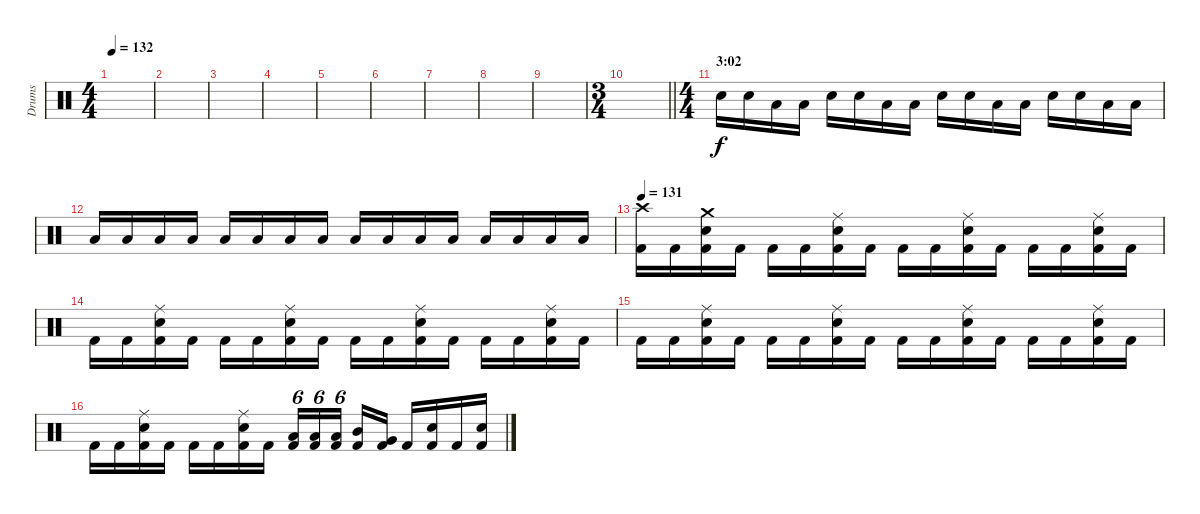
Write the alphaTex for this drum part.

\track ("Drums" "Drums") {instrument percussion}
\staff {score}
\articulation defaults
\ts (4 4)
\tempo 132
\clef neutral
\ks c
|
|
|
|
|
|
|
|
|
\ts (3 4)
\barLineRight lightlight
|
\ts (4 4)
\section ("" "3:02")
"Snare (hit) 2".16{dy f} "Snare (hit) 2".16 "Low Tom (hit)".16 "Low Tom (hit)".16 "Snare (hit) 2".16 "Snare (hit) 2".16 "Low Tom (hit)".16 "Low Tom (hit)".16 "Snare (hit) 2".16 "Snare (hit) 2".16 "Low Tom (hit)".16 "Low Tom (hit)".16 "Snare (hit) 2".16 "Snare (hit) 2".16 "Low Tom (hit)".16 "Low Tom (hit)".16 |
"Low Tom (hit)".16 "Low Tom (hit)".16 "Low Floor Tom (hit)".16 "Low Floor Tom (hit)".16 "Low Tom (hit)".16 "Low Tom (hit)".16 "Low Floor Tom (hit)".16 "Low Floor Tom (hit)".16 "Low Tom (hit)".16 "Low Tom (hit)".16 "Low Floor Tom (hit)".16 "Low Floor Tom (hit)".16 "Low Tom (hit)".16 "Low Tom (hit)".16 "Low Floor Tom (hit)".16 "Low Floor Tom (hit)".16 |
\tempo 131
("Crash high (hit)" "Kick (hit) 2").16 "Kick (hit) 2".16 ("Crash medium (hit)" "Snare (hit) 2" "Kick (hit) 2").16 "Kick (hit) 2".16 "Kick (hit) 2".16 "Kick (hit) 2".16 ("Ride (middle)" "Snare (hit) 2" "Kick (hit) 2").16 "Kick (hit) 2".16 "Kick (hit) 2".16 "Kick (hit) 2".16 ("Ride (middle)" "Snare (hit) 2" "Kick (hit) 2").16 "Kick (hit) 2".16 "Kick (hit) 2".16 "Kick (hit) 2".16 ("Ride (middle)" "Snare (hit) 2" "Kick (hit) 2").16 "Kick (hit) 2".16 |
"Kick (hit) 2".16 "Kick (hit) 2".16 ("Ride (middle)" "Snare (hit) 2" "Kick (hit) 2").16 "Kick (hit) 2".16 "Kick (hit) 2".16 "Kick (hit) 2".16 ("Ride (middle)" "Snare (hit) 2" "Kick (hit) 2").16 "Kick (hit) 2".16 "Kick (hit) 2".16 "Kick (hit) 2".16 ("Ride (middle)" "Snare (hit) 2" "Kick (hit) 2").16 "Kick (hit) 2".16 "Kick (hit) 2".16 "Kick (hit) 2".16 ("Ride (middle)" "Snare (hit) 2" "Kick (hit) 2").16 "Kick (hit) 2".16 |
"Kick (hit) 2".16 "Kick (hit) 2".16 ("Ride (middle)" "Snare (hit) 2" "Kick (hit) 2").16 "Kick (hit) 2".16 "Kick (hit) 2".16 "Kick (hit) 2".16 ("Ride (middle)" "Snare (hit) 2" "Kick (hit) 2").16 "Kick (hit) 2".16 "Kick (hit) 2".16 "Kick (hit) 2".16 ("Ride (middle)" "Snare (hit) 2" "Kick (hit) 2").16 "Kick (hit) 2".16 "Kick (hit) 2".16 "Kick (hit) 2".16 ("Ride (middle)" "Snare (hit) 2" "Kick (hit) 2").16 "Kick (hit) 2".16 |
"Kick (hit) 2".16 "Kick (hit) 2".16 ("Ride (middle)" "Snare (hit) 2" "Kick (hit) 2").16 "Kick (hit) 2".16 "Kick (hit) 2".16 "Kick (hit) 2".16 ("Ride (middle)" "Snare (hit) 2" "Kick (hit) 2").16 "Kick (hit) 2".16 ("Low Tom (hit)" "Kick (hit) 2").16{tu (6 4)} ("Low Tom (hit)" "Kick (hit) 2").16{tu (6 4)} ("Low Tom (hit)" "Kick (hit) 2").16{tu (6 4) beam splitsecondary} ("Mid Tom (hit)" "Kick (hit) 2").16 ("Very Low Tom (hit)" "Kick (hit) 2").16 "Kick (hit) 2".16 ("Snare (hit) 2" "Kick (hit) 2").16 "Kick (hit) 2".16 ("Snare (hit) 2" "Kick (hit) 2").16
